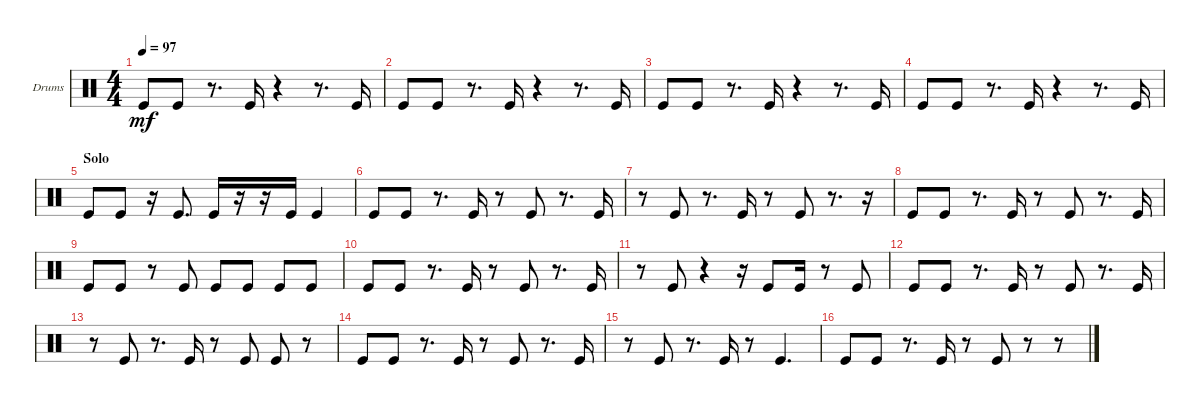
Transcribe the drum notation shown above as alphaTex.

\bracketExtendMode groupsimilarinstruments
\firstSystemTrackNameOrientation horizontal
\otherSystemsTrackNameOrientation horizontal
\track ("Kick" "Drums") {instrument percussion}
\staff {score}
\articulation defaults
\ts (4 4)
\tempo 97
\clef neutral
\ks c "Kick (hit)".8{dy mf} "Kick (hit)".8
r.8{d} "Kick (hit)".16 r.4 r.8{d} "Kick (hit)".16 |
"Kick (hit)".8 "Kick (hit)".8 r.8{d} "Kick (hit)".16 r.4 r.8{d} "Kick (hit)".16 |
"Kick (hit)".8 "Kick (hit)".8 r.8{d} "Kick (hit)".16 r.4 r.8{d} "Kick (hit)".16 |
"Kick (hit)".8 "Kick (hit)".8 r.8{d} "Kick (hit)".16 r.4 r.8{d} "Kick (hit)".16 |
\section ("" "Solo")
"Kick (hit)".8 "Kick (hit)".8 r.16 "Kick (hit)".8{d} "Kick (hit)".16 r.16 r.16 "Kick (hit)".16 "Kick (hit)".4 |
"Kick (hit)".8 "Kick (hit)".8 r.8{d} "Kick (hit)".16 r.8 "Kick (hit)".8 r.8{d} "Kick (hit)".16 |
r.8 "Kick (hit)".8 r.8{d} "Kick (hit)".16 r.8 "Kick (hit)".8 r.8{d} r.16 |
"Kick (hit)".8 "Kick (hit)".8 r.8{d} "Kick (hit)".16 r.8 "Kick (hit)".8 r.8{d} "Kick (hit)".16 |
"Kick (hit)".8 "Kick (hit)".8 r.8 "Kick (hit)".8 "Kick (hit)".8 "Kick (hit)".8 "Kick (hit)".8 "Kick (hit)".8 |
"Kick (hit)".8 "Kick (hit)".8 r.8{d} "Kick (hit)".16 r.8 "Kick (hit)".8 r.8{d} "Kick (hit)".16 |
r.8 "Kick (hit)".8 r.4 r.16 "Kick (hit)".8 "Kick (hit)".16 r.8 "Kick (hit)".8 |
"Kick (hit)".8 "Kick (hit)".8 r.8{d} "Kick (hit)".16 r.8 "Kick (hit)".8 r.8{d} "Kick (hit)".16 |
r.8 "Kick (hit)".8 r.8{d} "Kick (hit)".16 r.8 "Kick (hit)".8 "Kick (hit)".8 r.8 |
"Kick (hit)".8 "Kick (hit)".8 r.8{d} "Kick (hit)".16 r.8 "Kick (hit)".8 r.8{d} "Kick (hit)".16 |
r.8 "Kick (hit)".8 r.8{d} "Kick (hit)".16 r.8 "Kick (hit)".4{d} |
"Kick (hit)".8 "Kick (hit)".8 r.8{d} "Kick (hit)".16 r.8 "Kick (hit)".8 r.8 r.8
